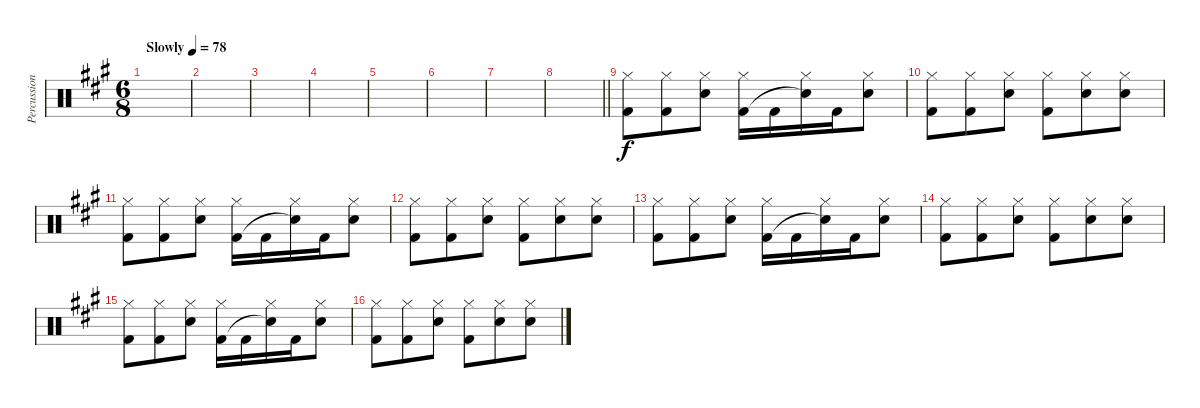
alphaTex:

\track ("Percussions" "Percussion") {instrument percussion}
\staff {score}
\articulation defaults
\ts (6 8)
\tempo (78 "Slowly")
\clef neutral
\ks a
|
|
|
|
|
|
|
\barLineRight lightlight
|
("Hi-Hat (closed)" "Kick (hit) 2").8 ("Hi-Hat (closed)" "Kick (hit) 2").8 ("Hi-Hat (closed)" "Snare (hit) 2").8 ("Hi-Hat (closed)" "Kick (hit) 2").16 "Kick (hit) 2".16 ("Hi-Hat (closed)" "Snare (hit)"{t}).16 "Kick (hit) 2".16 ("Hi-Hat (closed)" "Snare (hit) 2").8 |
("Hi-Hat (closed)" "Kick (hit) 2").8 ("Hi-Hat (closed)" "Kick (hit) 2").8 ("Hi-Hat (closed)" "Snare (hit) 2").8 ("Hi-Hat (closed)" "Kick (hit) 2").8 ("Hi-Hat (closed)" "Snare (hit) 2").8 ("Hi-Hat (closed)" "Snare (hit) 2").8 |
("Hi-Hat (closed)" "Kick (hit) 2").8 ("Hi-Hat (closed)" "Kick (hit) 2").8 ("Hi-Hat (closed)" "Snare (hit) 2").8 ("Hi-Hat (closed)" "Kick (hit) 2").16 "Kick (hit) 2".16 ("Hi-Hat (closed)" "Snare (hit)"{t}).16 "Kick (hit) 2".16 ("Hi-Hat (closed)" "Snare (hit) 2").8 |
("Hi-Hat (closed)" "Kick (hit) 2").8 ("Hi-Hat (closed)" "Kick (hit) 2").8 ("Hi-Hat (closed)" "Snare (hit) 2").8 ("Hi-Hat (closed)" "Kick (hit) 2").8 ("Hi-Hat (closed)" "Snare (hit) 2").8 ("Hi-Hat (closed)" "Snare (hit) 2").8 |
("Hi-Hat (closed)" "Kick (hit) 2").8 ("Hi-Hat (closed)" "Kick (hit) 2").8 ("Hi-Hat (closed)" "Snare (hit) 2").8 ("Hi-Hat (closed)" "Kick (hit) 2").16 "Kick (hit) 2".16 ("Hi-Hat (closed)" "Snare (hit)"{t}).16 "Kick (hit) 2".16 ("Hi-Hat (closed)" "Snare (hit) 2").8 |
("Hi-Hat (closed)" "Kick (hit) 2").8 ("Hi-Hat (closed)" "Kick (hit) 2").8 ("Hi-Hat (closed)" "Snare (hit) 2").8 ("Hi-Hat (closed)" "Kick (hit) 2").8 ("Hi-Hat (closed)" "Snare (hit) 2").8 ("Hi-Hat (closed)" "Snare (hit) 2").8 |
("Hi-Hat (closed)" "Kick (hit) 2").8 ("Hi-Hat (closed)" "Kick (hit) 2").8 ("Hi-Hat (closed)" "Snare (hit) 2").8 ("Hi-Hat (closed)" "Kick (hit) 2").16 "Kick (hit) 2".16 ("Hi-Hat (closed)" "Snare (hit)"{t}).16 "Kick (hit) 2".16 ("Hi-Hat (closed)" "Snare (hit) 2").8 |
("Hi-Hat (closed)" "Kick (hit) 2").8 ("Hi-Hat (closed)" "Kick (hit) 2").8 ("Hi-Hat (closed)" "Snare (hit) 2").8 ("Hi-Hat (closed)" "Kick (hit) 2").8 ("Hi-Hat (closed)" "Snare (hit) 2").8 ("Hi-Hat (closed)" "Snare (hit) 2").8
